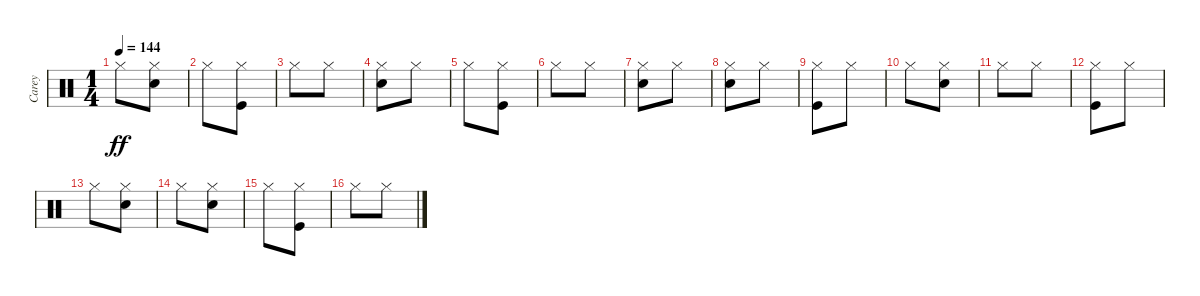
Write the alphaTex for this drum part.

\track ("Carey" "Carey") {instrument percussion}
\staff {score}
\articulation defaults
\ts (1 4)
\tempo 144
\clef neutral
\ks c "Hi-Hat (closed)".8{dy ff}
("Snare (hit) 2" "Hi-Hat (closed)").8 |
"Hi-Hat (closed)".8 ("Kick (hit)" "Hi-Hat (closed)").8 |
"Hi-Hat (closed)".8 "Hi-Hat (closed)".8 |
("Snare (hit) 2" "Hi-Hat (closed)").8 "Hi-Hat (closed)".8 |
"Hi-Hat (closed)".8 ("Kick (hit)" "Hi-Hat (closed)").8 |
"Hi-Hat (closed)".8 "Hi-Hat (closed)".8 |
("Snare (hit) 2" "Hi-Hat (closed)").8 "Hi-Hat (closed)".8 |
("Snare (hit) 2" "Hi-Hat (closed)").8 "Hi-Hat (closed)".8 |
("Kick (hit)" "Hi-Hat (closed)").8 "Hi-Hat (closed)".8 |
"Hi-Hat (closed)".8 ("Snare (hit) 2" "Hi-Hat (closed)").8 |
"Hi-Hat (closed)".8 "Hi-Hat (closed)".8 |
("Kick (hit)" "Hi-Hat (closed)").8 "Hi-Hat (closed)".8 |
"Hi-Hat (closed)".8 ("Snare (hit) 2" "Hi-Hat (closed)").8 |
"Hi-Hat (closed)".8 ("Snare (hit) 2" "Hi-Hat (closed)").8 |
"Hi-Hat (closed)".8 ("Kick (hit)" "Hi-Hat (closed)").8 |
"Hi-Hat (closed)".8 "Hi-Hat (closed)".8
